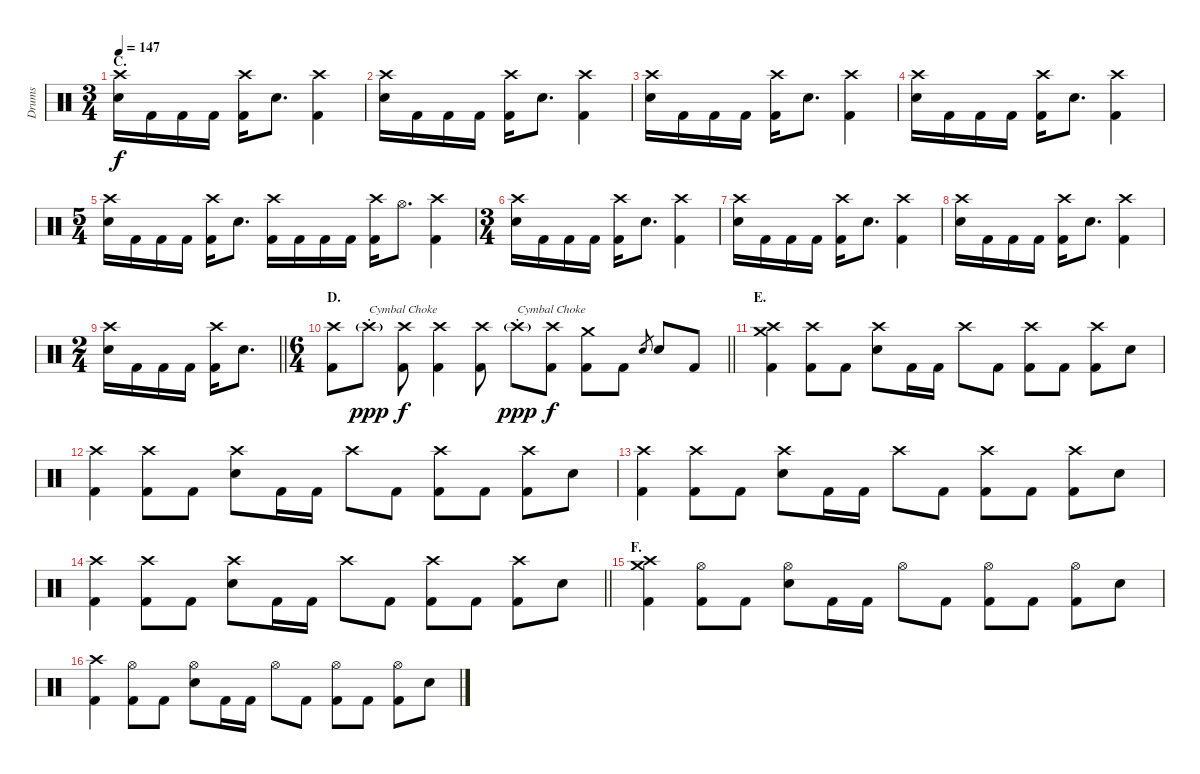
\track ("Drums" "Drums") {instrument percussion}
\staff {score}
\articulation defaults
\ts (3 4)
\section ("" "C.")
\tempo 147
\clef neutral
\ks c
("Crash high (hit)" "Electric Snare (hit)").16{dy f} "Kick (hit) 2".16 "Kick (hit) 2".16 "Kick (hit) 2".16 ("Crash high (hit)" "Kick (hit) 2").16 "Electric Snare (hit)".8{d} ("Crash high (hit)" "Kick (hit) 2").4 |
("Crash high (hit)" "Electric Snare (hit)").16 "Kick (hit) 2".16 "Kick (hit) 2".16 "Kick (hit) 2".16 ("Crash high (hit)" "Kick (hit) 2").16 "Electric Snare (hit)".8{d} ("Crash high (hit)" "Kick (hit) 2").4 |
("Crash high (hit)" "Electric Snare (hit)").16 "Kick (hit) 2".16 "Kick (hit) 2".16 "Kick (hit) 2".16 ("Crash high (hit)" "Kick (hit) 2").16 "Electric Snare (hit)".8{d} ("Crash high (hit)" "Kick (hit) 2").4 |
("Crash high (hit)" "Electric Snare (hit)").16 "Kick (hit) 2".16 "Kick (hit) 2".16 "Kick (hit) 2".16 ("Crash high (hit)" "Kick (hit) 2").16 "Electric Snare (hit)".8{d} ("Crash high (hit)" "Kick (hit) 2").4 |
\ts (5 4)
("Crash high (hit)" "Electric Snare (hit)").16 "Kick (hit) 2".16 "Kick (hit) 2".16 "Kick (hit) 2".16 ("Crash high (hit)" "Kick (hit) 2").16 "Electric Snare (hit)".8{d} ("Crash high (hit)" "Kick (hit) 2").16 "Kick (hit) 2".16 "Kick (hit) 2".16 "Kick (hit) 2".16 ("Crash high (hit)" "Kick (hit) 2").16 "Hi-Hat (open)".8{d} ("Crash high (hit)" "Kick (hit) 2").4 |
\ts (3 4)
("Crash high (hit)" "Electric Snare (hit)").16 "Kick (hit) 2".16 "Kick (hit) 2".16 "Kick (hit) 2".16 ("Crash high (hit)" "Kick (hit) 2").16 "Electric Snare (hit)".8{d} ("Crash high (hit)" "Kick (hit) 2").4 |
("Crash high (hit)" "Electric Snare (hit)").16 "Kick (hit) 2".16 "Kick (hit) 2".16 "Kick (hit) 2".16 ("Crash high (hit)" "Kick (hit) 2").16 "Electric Snare (hit)".8{d} ("Crash high (hit)" "Kick (hit) 2").4 |
("Crash high (hit)" "Electric Snare (hit)").16 "Kick (hit) 2".16 "Kick (hit) 2".16 "Kick (hit) 2".16 ("Crash high (hit)" "Kick (hit) 2").16 "Electric Snare (hit)".8{d} ("Crash high (hit)" "Kick (hit) 2").4 |
\ts (2 4)
\barLineRight lightlight
("Crash high (hit)" "Electric Snare (hit)").16 "Kick (hit) 2".16 "Kick (hit) 2".16 "Kick (hit) 2".16 ("Crash high (hit)" "Kick (hit) 2").16 "Electric Snare (hit)".8{d} |
\ts (6 4)
\section ("" "D.")
\barLineRight lightlight
("Crash high (hit)" "Kick (hit) 2").8 "Crash high (hit)"{g st}.8{txt "Cymbal Choke" dy ppp} ("Crash high (hit)" "Kick (hit) 2").8{dy f} ("Crash high (hit)" "Kick (hit) 2").4 ("Crash high (hit)" "Kick (hit) 2").8 "Crash high (hit)"{g st}.8{txt "Cymbal Choke" dy ppp} ("Crash high (hit)" "Kick (hit) 2").8{dy f} ("Crash medium (hit)" "Kick (hit) 2").8 "Kick (hit) 2".8 "Electric Snare (hit)".8{gr} "Electric Snare (hit)".8 "Kick (hit) 2".8 |
\section ("" "E.")
("Crash medium (hit)" "Crash high (hit)" "Kick (hit) 2").4 ("Crash high (hit)" "Kick (hit) 2").8 "Kick (hit) 2".8 ("Crash high (hit)" "Electric Snare (hit)").8 "Kick (hit) 2".16 "Kick (hit) 2".16 "Crash high (hit)".8 "Kick (hit) 2".8 ("Crash high (hit)" "Kick (hit) 2").8 "Kick (hit) 2".8 ("Crash high (hit)" "Kick (hit) 2").8 "Electric Snare (hit)".8 |
("Crash high (hit)" "Kick (hit) 2").4 ("Crash high (hit)" "Kick (hit) 2").8 "Kick (hit) 2".8 ("Crash high (hit)" "Electric Snare (hit)").8 "Kick (hit) 2".16 "Kick (hit) 2".16 "Crash high (hit)".8 "Kick (hit) 2".8 ("Crash high (hit)" "Kick (hit) 2").8 "Kick (hit) 2".8 ("Crash high (hit)" "Kick (hit) 2").8 "Electric Snare (hit)".8 |
("Crash high (hit)" "Kick (hit) 2").4 ("Crash high (hit)" "Kick (hit) 2").8 "Kick (hit) 2".8 ("Crash high (hit)" "Electric Snare (hit)").8 "Kick (hit) 2".16 "Kick (hit) 2".16 "Crash high (hit)".8 "Kick (hit) 2".8 ("Crash high (hit)" "Kick (hit) 2").8 "Kick (hit) 2".8 ("Crash high (hit)" "Kick (hit) 2").8 "Electric Snare (hit)".8 |
\barLineRight lightlight
("Crash high (hit)" "Kick (hit) 2").4 ("Crash high (hit)" "Kick (hit) 2").8 "Kick (hit) 2".8 ("Crash high (hit)" "Electric Snare (hit)").8 "Kick (hit) 2".16 "Kick (hit) 2".16 "Crash high (hit)".8 "Kick (hit) 2".8 ("Crash high (hit)" "Kick (hit) 2").8 "Kick (hit) 2".8 ("Crash high (hit)" "Kick (hit) 2").8 "Electric Snare (hit)".8 |
\section ("" "F.")
("Crash medium (hit)" "Crash high (hit)" "Kick (hit) 2").4 ("Hi-Hat (open)" "Kick (hit) 2").8 "Kick (hit) 2".8 ("Hi-Hat (open)" "Electric Snare (hit)").8 "Kick (hit) 2".16 "Kick (hit) 2".16 "Hi-Hat (open)".8 "Kick (hit) 2".8 ("Hi-Hat (open)" "Kick (hit) 2").8 "Kick (hit) 2".8 ("Hi-Hat (open)" "Kick (hit) 2").8 "Electric Snare (hit)".8 |
("Crash high (hit)" "Kick (hit) 2").4 ("Hi-Hat (open)" "Kick (hit) 2").8 "Kick (hit) 2".8 ("Hi-Hat (open)" "Electric Snare (hit)").8 "Kick (hit) 2".16 "Kick (hit) 2".16 "Hi-Hat (open)".8 "Kick (hit) 2".8 ("Hi-Hat (open)" "Kick (hit) 2").8 "Kick (hit) 2".8 ("Hi-Hat (open)" "Kick (hit) 2").8 "Electric Snare (hit)".8
